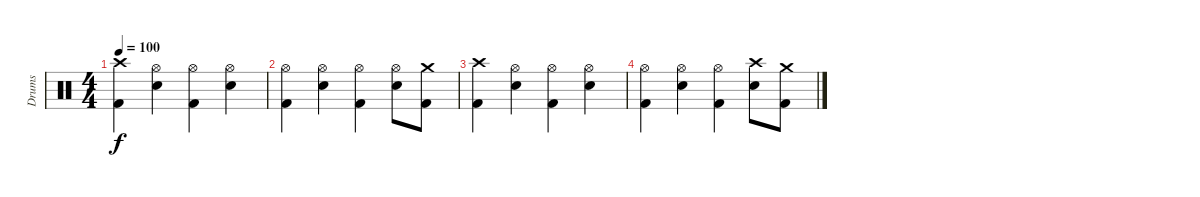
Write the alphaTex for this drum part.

\track ("Drums" "Drums") {instrument percussion}
\staff {score}
\articulation defaults
\ts (4 4)
\tempo 100
\clef neutral
\ks c
("Crash high (hit)" "Kick (hit) 2").4{dy f} ("Hi-Hat (open)" "Snare (hit) 2").4 ("Hi-Hat (open)" "Kick (hit) 2").4 ("Hi-Hat (open)" "Snare (hit) 2").4 |
("Hi-Hat (open)" "Kick (hit) 2").4 ("Hi-Hat (open)" "Snare (hit) 2").4 ("Hi-Hat (open)" "Kick (hit) 2").4 ("Hi-Hat (open)" "Snare (hit) 2").8 ("Crash medium (hit)" "Kick (hit) 2").8 |
("Crash high (hit)" "Kick (hit) 2").4 ("Hi-Hat (open)" "Snare (hit) 2").4 ("Hi-Hat (open)" "Kick (hit) 2").4 ("Hi-Hat (open)" "Snare (hit) 2").4 |
("Hi-Hat (open)" "Kick (hit) 2").4 ("Hi-Hat (open)" "Snare (hit) 2").4 ("Hi-Hat (open)" "Kick (hit) 2").4 ("Crash high (hit)" "Snare (hit) 2").8 ("Crash medium (hit)" "Kick (hit) 2").8
